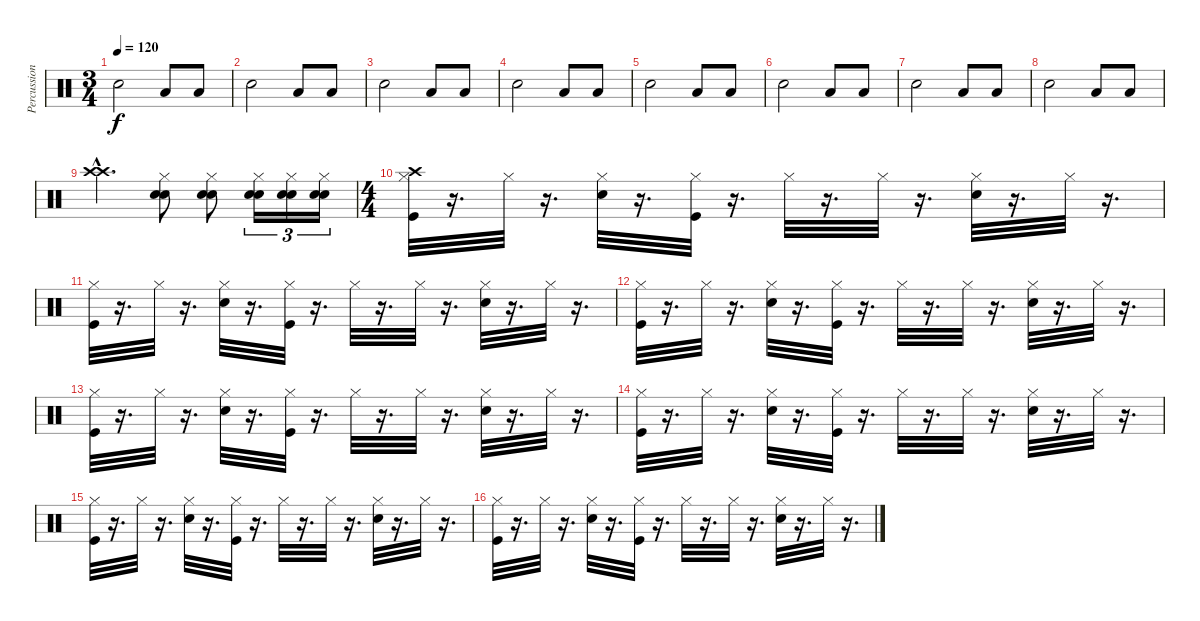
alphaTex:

\track ("Percussion" "Percussion") {instrument percussion}
\staff {score}
\articulation defaults
\ts (3 4)
\tempo 120
\clef neutral
\ks c "Electric Snare (hit)".2{dy f} "Low Tom (hit)".8 "Low Tom (hit)".8
|
"Electric Snare (hit)".2 "Low Tom (hit)".8 "Low Tom (hit)".8 |
"Electric Snare (hit)".2 "Low Tom (hit)".8 "Low Tom (hit)".8 |
"Electric Snare (hit)".2 "Low Tom (hit)".8 "Low Tom (hit)".8 |
"Electric Snare (hit)".2 "Low Tom (hit)".8 "Low Tom (hit)".8 |
"Electric Snare (hit)".2 "Low Tom (hit)".8 "Low Tom (hit)".8 |
"Electric Snare (hit)".2 "Low Tom (hit)".8 "Low Tom (hit)".8 |
"Electric Snare (hit)".2 "Low Tom (hit)".8 "Low Tom (hit)".8 |
("Crash high (hit)"{hac} "Crash high (hit)"{hac}).4{d} ("Hi-Hat (closed)" "Snare (hit) 2" "Snare (hit) 2").8 ("Hi-Hat (closed)" "Snare (hit) 2" "Snare (hit) 2").8 ("Hi-Hat (closed)" "Snare (hit) 2" "Snare (hit) 2").16{tu (3 2)} ("Hi-Hat (closed)" "Snare (hit) 2" "Snare (hit) 2").16{tu (3 2)} ("Hi-Hat (closed)" "Snare (hit) 2" "Snare (hit) 2").16{tu (3 2)} |
\ts (4 4)
("Kick (hit)" "Hi-Hat (closed)" "Crash high (hit)").32 r.16{d} "Hi-Hat (closed)".32 r.16{d} ("Electric Snare (hit)" "Hi-Hat (closed)").32 r.16{d} ("Kick (hit)" "Hi-Hat (closed)").32 r.16{d} "Hi-Hat (closed)".32 r.16{d} "Hi-Hat (closed)".32 r.16{d} ("Electric Snare (hit)" "Hi-Hat (closed)").32 r.16{d} "Hi-Hat (closed)".32 r.16{d} |
("Kick (hit)" "Hi-Hat (closed)").32 r.16{d} "Hi-Hat (closed)".32 r.16{d} ("Electric Snare (hit)" "Hi-Hat (closed)").32 r.16{d} ("Kick (hit)" "Hi-Hat (closed)").32 r.16{d} "Hi-Hat (closed)".32 r.16{d} "Hi-Hat (closed)".32 r.16{d} ("Electric Snare (hit)" "Hi-Hat (closed)").32 r.16{d} "Hi-Hat (closed)".32 r.16{d} |
("Kick (hit)" "Hi-Hat (closed)").32 r.16{d} "Hi-Hat (closed)".32 r.16{d} ("Electric Snare (hit)" "Hi-Hat (closed)").32 r.16{d} ("Kick (hit)" "Hi-Hat (closed)").32 r.16{d} "Hi-Hat (closed)".32 r.16{d} "Hi-Hat (closed)".32 r.16{d} ("Electric Snare (hit)" "Hi-Hat (closed)").32 r.16{d} "Hi-Hat (closed)".32 r.16{d} |
("Kick (hit)" "Hi-Hat (closed)").32 r.16{d} "Hi-Hat (closed)".32 r.16{d} ("Electric Snare (hit)" "Hi-Hat (closed)").32 r.16{d} ("Kick (hit)" "Hi-Hat (closed)").32 r.16{d} "Hi-Hat (closed)".32 r.16{d} "Hi-Hat (closed)".32 r.16{d} ("Electric Snare (hit)" "Hi-Hat (closed)").32 r.16{d} "Hi-Hat (closed)".32 r.16{d} |
("Kick (hit)" "Hi-Hat (closed)").32 r.16{d} "Hi-Hat (closed)".32 r.16{d} ("Electric Snare (hit)" "Hi-Hat (closed)").32 r.16{d} ("Kick (hit)" "Hi-Hat (closed)").32 r.16{d} "Hi-Hat (closed)".32 r.16{d} "Hi-Hat (closed)".32 r.16{d} ("Electric Snare (hit)" "Hi-Hat (closed)").32 r.16{d} "Hi-Hat (closed)".32 r.16{d} |
("Kick (hit)" "Hi-Hat (closed)").32 r.16{d} "Hi-Hat (closed)".32 r.16{d} ("Electric Snare (hit)" "Hi-Hat (closed)").32 r.16{d} ("Kick (hit)" "Hi-Hat (closed)").32 r.16{d} "Hi-Hat (closed)".32 r.16{d} "Hi-Hat (closed)".32 r.16{d} ("Electric Snare (hit)" "Hi-Hat (closed)").32 r.16{d} "Hi-Hat (closed)".32 r.16{d} |
("Kick (hit)" "Hi-Hat (closed)").32 r.16{d} "Hi-Hat (closed)".32 r.16{d} ("Electric Snare (hit)" "Hi-Hat (closed)").32 r.16{d} ("Kick (hit)" "Hi-Hat (closed)").32 r.16{d} "Hi-Hat (closed)".32 r.16{d} "Hi-Hat (closed)".32 r.16{d} ("Electric Snare (hit)" "Hi-Hat (closed)").32 r.16{d} "Hi-Hat (closed)".32 r.16{d}
